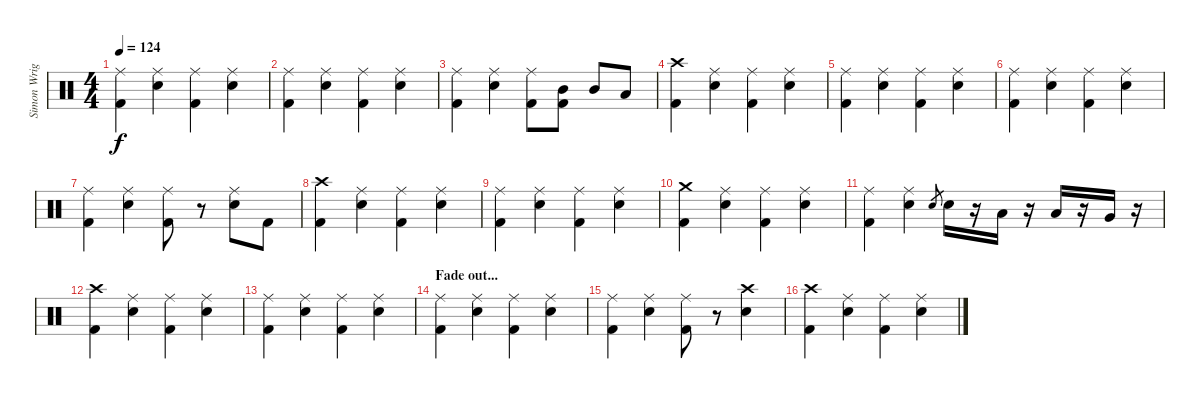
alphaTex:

\track ("Simon Wright" "Simon Wrig") {instrument percussion}
\staff {score}
\articulation defaults
\ts (4 4)
\tempo 124
\clef neutral
\ks c
("Ride (middle)" "Kick (hit) 2").4{dy f} ("Ride (middle)" "Electric Snare (hit)").4 ("Ride (middle)" "Kick (hit) 2").4 ("Ride (middle)" "Electric Snare (hit)").4 |
("Ride (middle)" "Kick (hit) 2").4 ("Ride (middle)" "Electric Snare (hit)").4 ("Ride (middle)" "Kick (hit) 2").4 ("Ride (middle)" "Electric Snare (hit)").4 |
("Ride (middle)" "Kick (hit) 2").4 ("Ride (middle)" "Electric Snare (hit)").4 ("Ride (middle)" "Kick (hit) 2").8 ("Mid Tom (hit)" "Kick (hit) 2").8 "Mid Tom (hit)".8 "Low Tom (hit)".8 |
("Crash high (hit)" "Kick (hit) 2").4 ("Ride (middle)" "Electric Snare (hit)").4 ("Ride (middle)" "Kick (hit) 2").4 ("Ride (middle)" "Electric Snare (hit)").4 |
("Ride (middle)" "Kick (hit) 2").4 ("Ride (middle)" "Electric Snare (hit)").4 ("Ride (middle)" "Kick (hit) 2").4 ("Ride (middle)" "Electric Snare (hit)").4 |
("Ride (middle)" "Kick (hit) 2").4 ("Ride (middle)" "Electric Snare (hit)").4 ("Ride (middle)" "Kick (hit) 2").4 ("Ride (middle)" "Electric Snare (hit)").4 |
("Ride (middle)" "Kick (hit) 2").4 ("Ride (middle)" "Electric Snare (hit)").4 ("Ride (middle)" "Kick (hit) 2").8 r.8 ("Ride (middle)" "Electric Snare (hit)").8 "Kick (hit) 2".8 |
("Crash high (hit)" "Kick (hit) 2").4 ("Ride (middle)" "Electric Snare (hit)").4 ("Ride (middle)" "Kick (hit) 2").4 ("Ride (middle)" "Electric Snare (hit)").4 |
("Ride (middle)" "Kick (hit) 2").4 ("Ride (middle)" "Electric Snare (hit)").4 ("Ride (middle)" "Kick (hit) 2").4 ("Ride (middle)" "Electric Snare (hit)").4 |
("Crash medium (hit)" "Kick (hit) 2").4 ("Ride (middle)" "Electric Snare (hit)").4 ("Ride (middle)" "Kick (hit) 2").4 ("Ride (middle)" "Electric Snare (hit)").4 |
("Ride (middle)" "Kick (hit) 2").4 ("Ride (middle)" "Electric Snare (hit)").4 "Electric Snare (hit)".8{gr} "Electric Snare (hit)".16 r.16 "Low Tom (hit)".16 r.16 "Low Tom (hit)".16 r.16 "Very Low Tom (hit)".16 r.16 |
("Crash high (hit)" "Kick (hit) 2").4 ("Ride (middle)" "Electric Snare (hit)").4 ("Ride (middle)" "Kick (hit) 2").4 ("Ride (middle)" "Electric Snare (hit)").4 |
("Ride (middle)" "Kick (hit) 2").4 ("Ride (middle)" "Electric Snare (hit)").4 ("Ride (middle)" "Kick (hit) 2").4 ("Ride (middle)" "Electric Snare (hit)").4 |
\section ("" "Fade out...")
("Ride (middle)" "Kick (hit) 2").4{volume 11} ("Ride (middle)" "Electric Snare (hit)").4 ("Ride (middle)" "Kick (hit) 2").4 ("Ride (middle)" "Electric Snare (hit)").4 |
("Ride (middle)" "Kick (hit) 2").4{volume 10} ("Ride (middle)" "Electric Snare (hit)").4 ("Ride (middle)" "Kick (hit) 2").8 r.8 ("Crash high (hit)" "Electric Snare (hit)").4 |
("Crash high (hit)" "Kick (hit) 2").4{volume 9} ("Ride (middle)" "Electric Snare (hit)").4 ("Ride (middle)" "Kick (hit) 2").4 ("Ride (middle)" "Electric Snare (hit)").4
